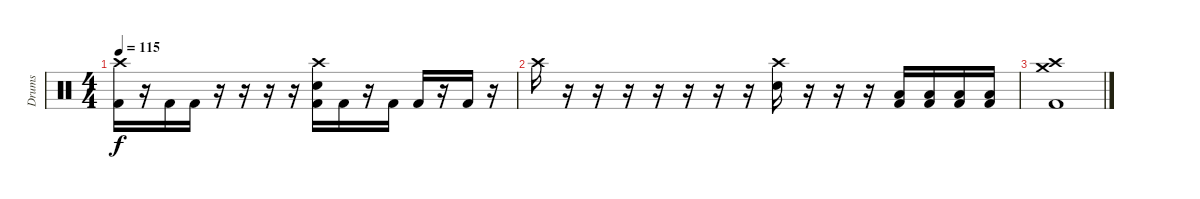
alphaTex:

\track ("Drums" "Drums") {instrument percussion}
\staff {score}
\articulation defaults
\ts (4 4)
\tempo 115
\clef neutral
\ks c
("Crash high (hit)" "Kick (hit) 2").16{dy f} r.16 "Kick (hit) 2".16 "Kick (hit) 2".16 r.16 r.16 r.16 r.16 ("Crash high (hit)" "Electric Snare (hit)" "Kick (hit) 2").16 "Kick (hit) 2".16 r.16 "Kick (hit) 2".16 "Kick (hit) 2".16 r.16 "Kick (hit) 2".16 r.16 |
"Crash high (hit)".16 r.16 r.16 r.16 r.16 r.16 r.16 r.16 ("Crash high (hit)" "Electric Snare (hit)").16 r.16 r.16 r.16 ("Low Tom (hit)" "Kick (hit) 2").16 ("Low Tom (hit)" "Kick (hit) 2").16 ("Low Tom (hit)" "Kick (hit) 2").16 ("Low Tom (hit)" "Kick (hit) 2").16 |
("Crash medium (hit)" "Crash high (hit)" "Kick (hit) 2").1
